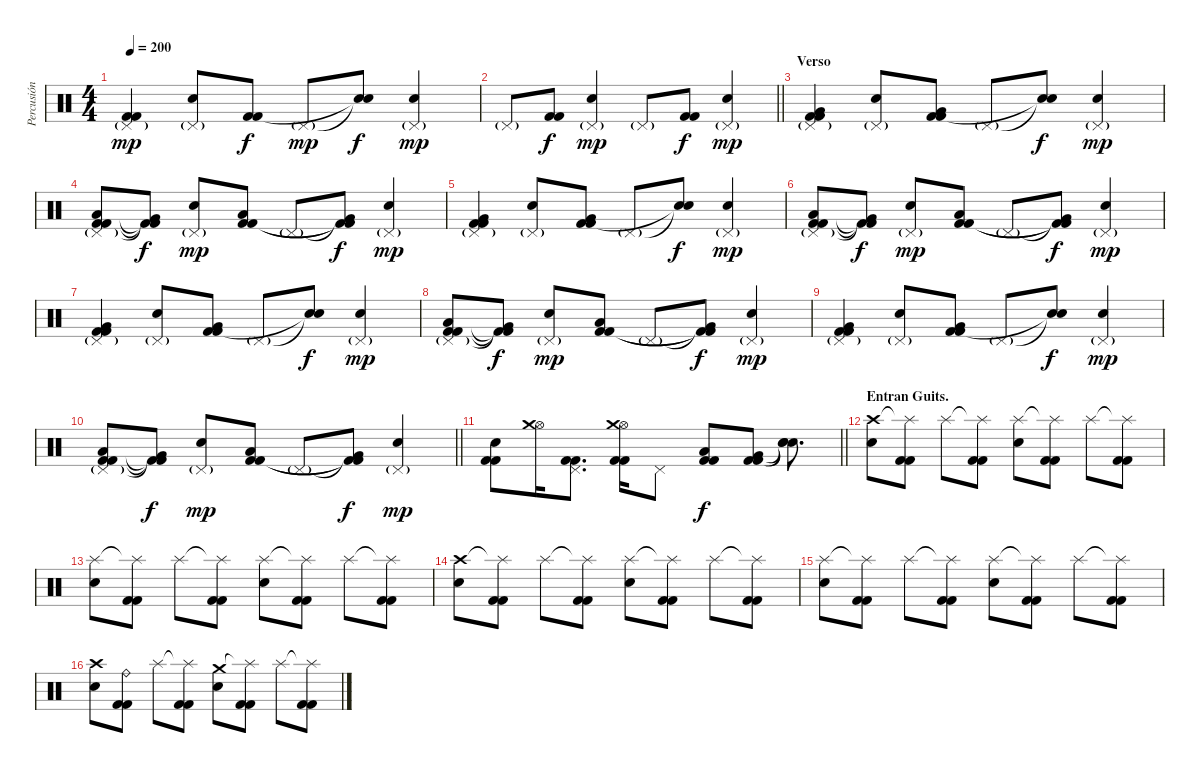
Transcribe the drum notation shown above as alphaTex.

\track ("Percusión" "Percusión") {instrument percussion}
\staff {score}
\articulation defaults
\ts (4 4)
\tempo 200
\clef neutral
\ks c
("Pedal Hi-Hat (hit)"{g} "Kick (hit) 2" "Kick (hit) 2").4{dy mp} ("Pedal Hi-Hat (hit)"{g} "Electric Snare (hit)").8 ("Kick (hit) 2" "Kick (hit) 2").8{dy f} "Pedal Hi-Hat (hit)"{g}.8{dy mp} ("Snare (hit)"{t} "Snare (hit)"{t}).8{dy f} ("Pedal Hi-Hat (hit)"{g} "Electric Snare (hit)").4{dy mp} |
\barLineRight lightlight "Pedal Hi-Hat (hit)"{g}.8
("Kick (hit) 2" "Kick (hit) 2").8{dy f} ("Pedal Hi-Hat (hit)"{g} "Electric Snare (hit)").4{dy mp} "Pedal Hi-Hat (hit)"{g}.8 ("Kick (hit) 2" "Kick (hit) 2").8{dy f} ("Pedal Hi-Hat (hit)"{g} "Electric Snare (hit)").4{dy mp} |
\section ("" "Verso")
("Pedal Hi-Hat (hit)"{g} "Very Low Tom (hit)" "Kick (hit) 2" "Kick (hit) 2").4 ("Pedal Hi-Hat (hit)"{g} "Electric Snare (hit)").8 ("Very Low Tom (hit)" "Kick (hit) 2" "Kick (hit) 2").8 "Pedal Hi-Hat (hit)"{g}.8 ("Snare (hit)"{t} "Snare (hit)"{t}).8{dy f} ("Pedal Hi-Hat (hit)"{g} "Electric Snare (hit)").4{dy mp} |
("Pedal Hi-Hat (hit)"{g} "Low Tom (hit)" "Kick (hit) 2" "Kick (hit) 2").8 ("Very Low Tom (hit)"{t} "Kick (hit) 2"{t} "Kick (hit) 2"{t}).8{dy f} ("Pedal Hi-Hat (hit)"{g} "Electric Snare (hit)").8{dy mp} ("Low Tom (hit)" "Kick (hit) 2" "Kick (hit) 2").8 "Pedal Hi-Hat (hit)"{g}.8 ("Very Low Tom (hit)"{t} "Kick (hit) 2"{t} "Kick (hit) 2"{t}).8{dy f} ("Pedal Hi-Hat (hit)"{g} "Electric Snare (hit)").4{dy mp} |
("Pedal Hi-Hat (hit)"{g} "Very Low Tom (hit)" "Kick (hit) 2" "Kick (hit) 2").4 ("Pedal Hi-Hat (hit)"{g} "Electric Snare (hit)").8 ("Very Low Tom (hit)" "Kick (hit) 2" "Kick (hit) 2").8 "Pedal Hi-Hat (hit)"{g}.8 ("Snare (hit)"{t} "Snare (hit)"{t}).8{dy f} ("Pedal Hi-Hat (hit)"{g} "Electric Snare (hit)").4{dy mp} |
("Pedal Hi-Hat (hit)"{g} "Low Tom (hit)" "Kick (hit) 2" "Kick (hit) 2").8 ("Very Low Tom (hit)"{t} "Kick (hit) 2"{t} "Kick (hit) 2"{t}).8{dy f} ("Pedal Hi-Hat (hit)"{g} "Electric Snare (hit)").8{dy mp} ("Low Tom (hit)" "Kick (hit) 2" "Kick (hit) 2").8 "Pedal Hi-Hat (hit)"{g}.8 ("Very Low Tom (hit)"{t} "Kick (hit) 2"{t} "Kick (hit) 2"{t}).8{dy f} ("Pedal Hi-Hat (hit)"{g} "Electric Snare (hit)").4{dy mp} |
("Pedal Hi-Hat (hit)"{g} "Very Low Tom (hit)" "Kick (hit) 2" "Kick (hit) 2").4 ("Pedal Hi-Hat (hit)"{g} "Electric Snare (hit)").8 ("Very Low Tom (hit)" "Kick (hit) 2" "Kick (hit) 2").8 "Pedal Hi-Hat (hit)"{g}.8 ("Snare (hit)"{t} "Snare (hit)"{t}).8{dy f} ("Pedal Hi-Hat (hit)"{g} "Electric Snare (hit)").4{dy mp} |
("Pedal Hi-Hat (hit)"{g} "Low Tom (hit)" "Kick (hit) 2" "Kick (hit) 2").8 ("Very Low Tom (hit)"{t} "Kick (hit) 2"{t} "Kick (hit) 2"{t}).8{dy f} ("Pedal Hi-Hat (hit)"{g} "Electric Snare (hit)").8{dy mp} ("Low Tom (hit)" "Kick (hit) 2" "Kick (hit) 2").8 "Pedal Hi-Hat (hit)"{g}.8 ("Very Low Tom (hit)"{t} "Kick (hit) 2"{t} "Kick (hit) 2"{t}).8{dy f} ("Pedal Hi-Hat (hit)"{g} "Electric Snare (hit)").4{dy mp} |
("Pedal Hi-Hat (hit)"{g} "Very Low Tom (hit)" "Kick (hit) 2" "Kick (hit) 2").4 ("Pedal Hi-Hat (hit)"{g} "Electric Snare (hit)").8 ("Very Low Tom (hit)" "Kick (hit) 2" "Kick (hit) 2").8 "Pedal Hi-Hat (hit)"{g}.8 ("Snare (hit)"{t} "Snare (hit)"{t}).8{dy f} ("Pedal Hi-Hat (hit)"{g} "Electric Snare (hit)").4{dy mp} |
\barLineRight lightlight
("Pedal Hi-Hat (hit)"{g} "Low Tom (hit)" "Kick (hit) 2" "Kick (hit) 2").8 ("Very Low Tom (hit)"{t} "Kick (hit) 2"{t} "Kick (hit) 2"{t}).8{dy f} ("Pedal Hi-Hat (hit)"{g} "Electric Snare (hit)").8{dy mp} ("Low Tom (hit)" "Kick (hit) 2" "Kick (hit) 2").8 "Pedal Hi-Hat (hit)"{g}.8 ("Very Low Tom (hit)"{t} "Kick (hit) 2"{t} "Kick (hit) 2"{t}).8{dy f} ("Pedal Hi-Hat (hit)"{g} "Electric Snare (hit)").4{dy mp} |
\barLineRight lightlight
("Electric Snare (hit)" "Kick (hit) 2" "Kick (hit) 2").8 ("Hi-Hat (open)" "Crash medium (hit)").16 ("Pedal Hi-Hat (hit)" "Kick (hit) 2" "Kick (hit) 2").8{d} ("Hi-Hat (open)" "Crash medium (hit)" "Kick (hit) 2" "Kick (hit) 2").16 "Pedal Hi-Hat (hit)".8 ("Low Tom (hit)" "Kick (hit) 2" "Kick (hit) 2").8{dy f} ("Very Low Tom (hit)" "Kick (hit) 2" "Kick (hit) 2").8 ("Snare (hit)"{t} "Snare (hit)"{t} "Snare (hit)"{t}).8{d} |
\section ("" "Entran Guits.")
("Crash high (hit)" "Electric Snare (hit)").8 ("Splash (hit)"{t} "Kick (hit) 2" "Kick (hit) 2").8 "Splash (hit)".8 ("Splash (hit)"{t} "Kick (hit) 2" "Kick (hit) 2").8 ("Splash (hit)" "Electric Snare (hit)").8 ("Splash (hit)"{t} "Kick (hit) 2" "Kick (hit) 2").8 "Splash (hit)".8 ("Splash (hit)"{t} "Kick (hit) 2" "Kick (hit) 2").8 |
("Splash (hit)" "Electric Snare (hit)").8 ("Splash (hit)"{t} "Kick (hit) 2" "Kick (hit) 2").8 "Splash (hit)".8 ("Splash (hit)"{t} "Kick (hit) 2" "Kick (hit) 2").8 ("Splash (hit)" "Electric Snare (hit)").8 ("Splash (hit)"{t} "Kick (hit) 2" "Kick (hit) 2").8 "Splash (hit)".8 ("Splash (hit)"{t} "Kick (hit) 2" "Kick (hit) 2").8 |
("Crash high (hit)" "Electric Snare (hit)").8 ("Splash (hit)"{t} "Kick (hit) 2" "Kick (hit) 2").8 "Splash (hit)".8 ("Splash (hit)"{t} "Kick (hit) 2" "Kick (hit) 2").8 ("Splash (hit)" "Electric Snare (hit)").8 ("Splash (hit)"{t} "Kick (hit) 2" "Kick (hit) 2").8 "Splash (hit)".8 ("Splash (hit)"{t} "Kick (hit) 2" "Kick (hit) 2").8 |
("Splash (hit)" "Electric Snare (hit)").8 ("Splash (hit)"{t} "Kick (hit) 2" "Kick (hit) 2").8 "Splash (hit)".8 ("Splash (hit)"{t} "Kick (hit) 2" "Kick (hit) 2").8 ("Splash (hit)" "Electric Snare (hit)").8 ("Splash (hit)"{t} "Kick (hit) 2" "Kick (hit) 2").8 "Splash (hit)".8 ("Splash (hit)"{t} "Kick (hit) 2" "Kick (hit) 2").8 |
("Crash high (hit)" "Electric Snare (hit)").8 ("Ride (bell)" "Kick (hit) 2" "Kick (hit) 2").8 "Splash (hit)".8 ("Splash (hit)"{t} "Kick (hit) 2" "Kick (hit) 2").8 ("Crash medium (hit)" "Electric Snare (hit)").8 ("Splash (hit)"{t} "Kick (hit) 2" "Kick (hit) 2").8 "Splash (hit)".8 ("Splash (hit)"{t} "Kick (hit) 2" "Kick (hit) 2").8
